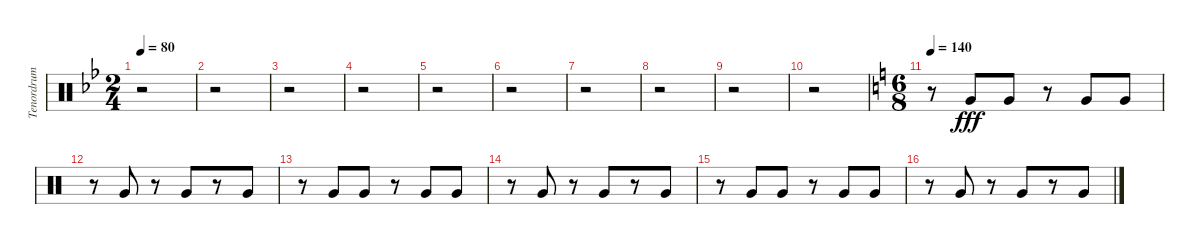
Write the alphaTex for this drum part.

\track ("Tenordrum" "Tenordrum") {instrument percussion}
\staff {score}
\articulation defaults
\ts (2 4)
\tempo 80
\clef neutral
\ks bb
r.2{dy fff} |
r.2 |
r.2 |
r.2 |
r.2 |
r.2 |
r.2 |
r.2 |
r.2 |
r.2 |
\ts (6 8)
\tempo 140
\ks c
r.8 "Very Low Tom (hit)".8 "Very Low Tom (hit)".8 r.8 "Very Low Tom (hit)".8 "Very Low Tom (hit)".8 |
r.8 "Very Low Tom (hit)".8 r.8 "Very Low Tom (hit)".8 r.8 "Very Low Tom (hit)".8 |
r.8 "Very Low Tom (hit)".8 "Very Low Tom (hit)".8 r.8 "Very Low Tom (hit)".8 "Very Low Tom (hit)".8 |
r.8 "Very Low Tom (hit)".8 r.8 "Very Low Tom (hit)".8 r.8 "Very Low Tom (hit)".8 |
r.8 "Very Low Tom (hit)".8 "Very Low Tom (hit)".8 r.8 "Very Low Tom (hit)".8 "Very Low Tom (hit)".8 |
r.8 "Very Low Tom (hit)".8 r.8 "Very Low Tom (hit)".8 r.8 "Very Low Tom (hit)".8
